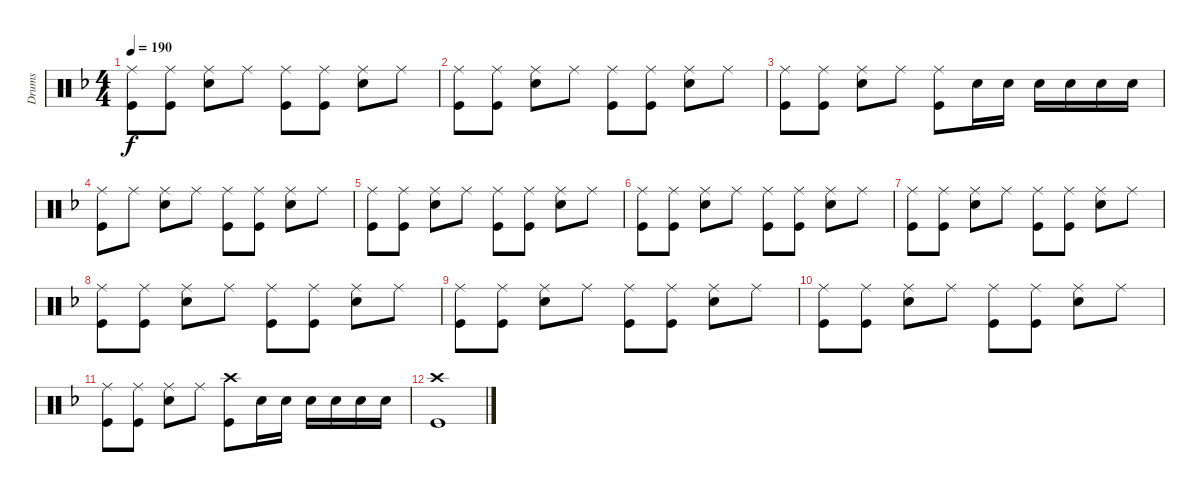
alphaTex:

\track ("Drums" "Drums") {instrument percussion}
\staff {score}
\articulation defaults
\ts (4 4)
\tempo 190
\clef neutral
\ks f
("Kick (hit)" "Ride (middle)").8{dy f} ("Ride (middle)" "Kick (hit)").8 ("Snare (hit) 2" "Ride (middle)").8 "Ride (middle)".8 ("Ride (middle)" "Kick (hit)").8 ("Ride (middle)" "Kick (hit)").8 ("Ride (middle)" "Snare (hit) 2").8 "Ride (middle)".8 |
("Kick (hit)" "Ride (middle)").8 ("Ride (middle)" "Kick (hit)").8 ("Snare (hit) 2" "Ride (middle)").8 "Ride (middle)".8 ("Ride (middle)" "Kick (hit)").8 ("Ride (middle)" "Kick (hit)").8 ("Ride (middle)" "Snare (hit) 2").8 "Ride (middle)".8 |
("Kick (hit)" "Ride (middle)").8 ("Ride (middle)" "Kick (hit)").8 ("Snare (hit) 2" "Ride (middle)").8 "Ride (middle)".8 ("Ride (middle)" "Kick (hit)").8 "Snare (hit) 2".16 "Snare (hit) 2".16 "Snare (hit) 2".16 "Snare (hit) 2".16 "Snare (hit) 2".16 "Snare (hit) 2".16 |
("Kick (hit)" "Ride (middle)").8 "Ride (middle)".8 ("Snare (hit) 2" "Ride (middle)").8 "Ride (middle)".8 ("Ride (middle)" "Kick (hit)").8 ("Ride (middle)" "Kick (hit)").8 ("Ride (middle)" "Snare (hit) 2").8 "Ride (middle)".8 |
("Kick (hit)" "Ride (middle)").8 ("Ride (middle)" "Kick (hit)").8 ("Snare (hit) 2" "Ride (middle)").8 "Ride (middle)".8 ("Ride (middle)" "Kick (hit)").8 ("Ride (middle)" "Kick (hit)").8 ("Ride (middle)" "Snare (hit) 2").8 "Ride (middle)".8 |
("Kick (hit)" "Ride (middle)").8 ("Ride (middle)" "Kick (hit)").8 ("Snare (hit) 2" "Ride (middle)").8 "Ride (middle)".8 ("Ride (middle)" "Kick (hit)").8 ("Ride (middle)" "Kick (hit)").8 ("Ride (middle)" "Snare (hit) 2").8 "Ride (middle)".8 |
("Kick (hit)" "Ride (middle)").8 ("Ride (middle)" "Kick (hit)").8 ("Snare (hit) 2" "Ride (middle)").8 "Ride (middle)".8 ("Ride (middle)" "Kick (hit)").8 ("Ride (middle)" "Kick (hit)").8 ("Ride (middle)" "Snare (hit) 2").8 "Ride (middle)".8 |
("Kick (hit)" "Ride (middle)").8 ("Ride (middle)" "Kick (hit)").8 ("Snare (hit) 2" "Ride (middle)").8 "Ride (middle)".8 ("Ride (middle)" "Kick (hit)").8 ("Ride (middle)" "Kick (hit)").8 ("Ride (middle)" "Snare (hit) 2").8 "Ride (middle)".8 |
("Kick (hit)" "Ride (middle)").8 ("Ride (middle)" "Kick (hit)").8 ("Snare (hit) 2" "Ride (middle)").8 "Ride (middle)".8 ("Ride (middle)" "Kick (hit)").8 ("Ride (middle)" "Kick (hit)").8 ("Ride (middle)" "Snare (hit) 2").8 "Ride (middle)".8 |
("Kick (hit)" "Ride (middle)").8 ("Ride (middle)" "Kick (hit)").8 ("Snare (hit) 2" "Ride (middle)").8 "Ride (middle)".8 ("Ride (middle)" "Kick (hit)").8 ("Ride (middle)" "Kick (hit)").8 ("Ride (middle)" "Snare (hit) 2").8 "Ride (middle)".8 |
("Kick (hit)" "Ride (middle)").8 ("Ride (middle)" "Kick (hit)").8 ("Snare (hit) 2" "Ride (middle)").8 "Ride (middle)".8 ("Crash high (hit)" "Kick (hit)").8 "Snare (hit) 2".16 "Snare (hit) 2".16 "Snare (hit) 2".16 "Snare (hit) 2".16 "Snare (hit) 2".16 "Snare (hit) 2".16 |
("Crash high (hit)" "Kick (hit)").1
